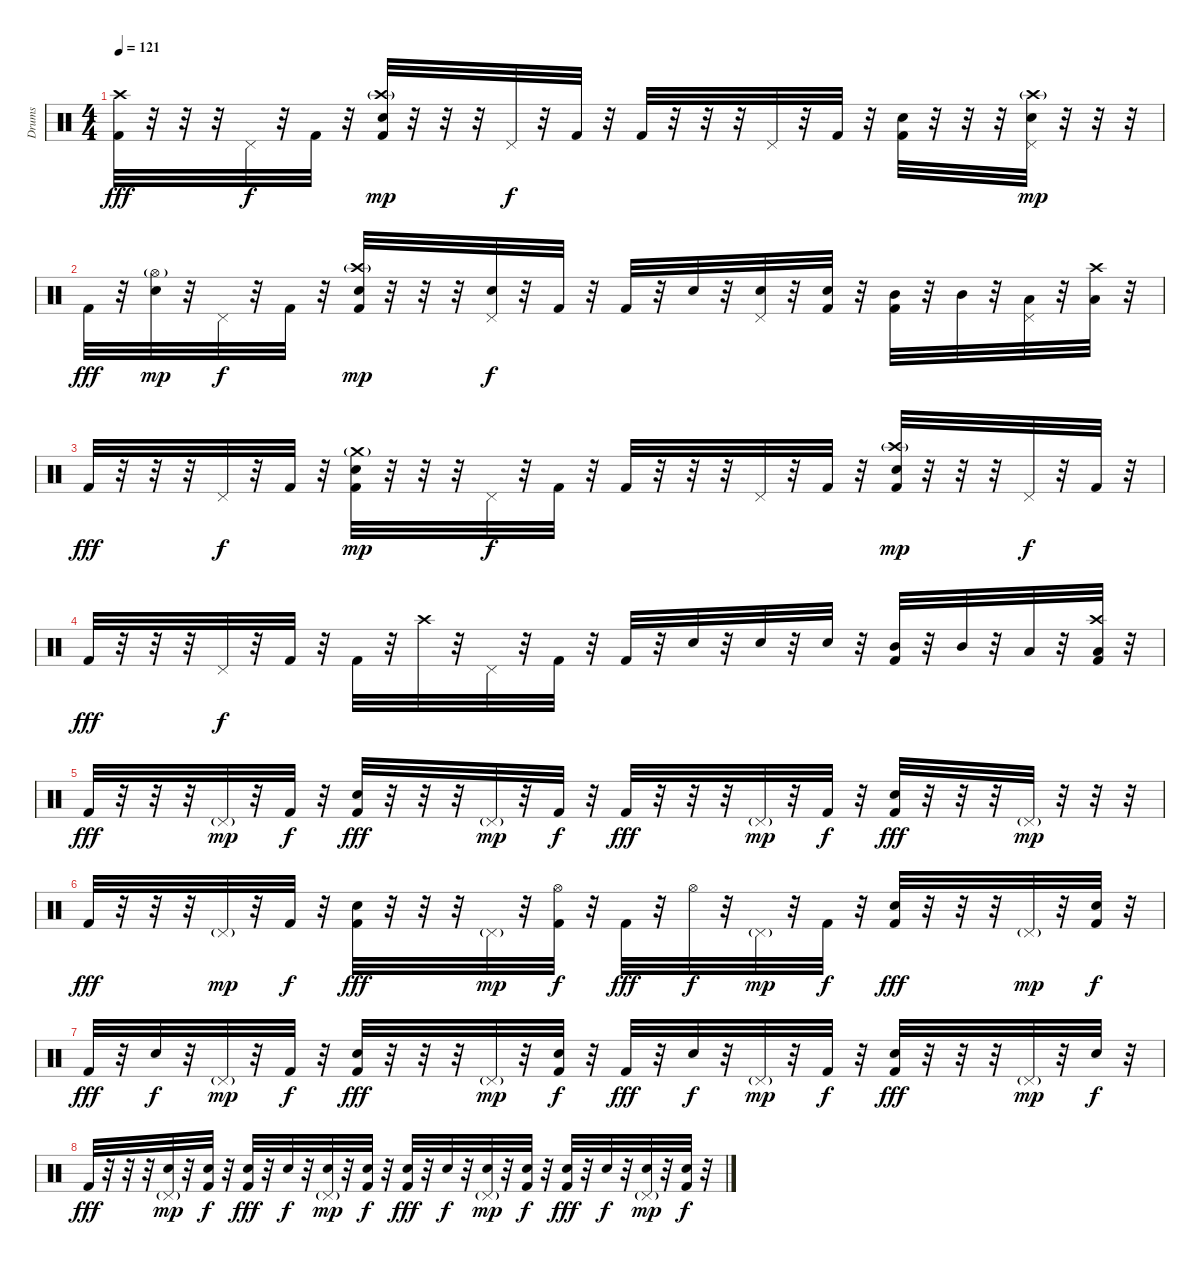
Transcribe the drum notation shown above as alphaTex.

\track ("Drums" "Drums") {instrument percussion}
\staff {score}
\articulation defaults
\ts (4 4)
\tempo 121
\clef neutral
\ks c
("Kick (hit) 2" "Crash high (hit)").32{dy fff} r.32 r.32 r.32 "Pedal Hi-Hat (hit)".32{dy f} r.32 "Kick (hit) 2".32 r.32 ("Kick (hit) 2" "Crash high (hit)"{g} "Electric Snare (hit)").32{dy mp} r.32 r.32 r.32 "Pedal Hi-Hat (hit)".32{dy f} r.32 "Kick (hit) 2".32 r.32 "Kick (hit) 2".32 r.32 r.32 r.32 "Pedal Hi-Hat (hit)".32 r.32 "Kick (hit) 2".32 r.32 ("Kick (hit) 2" "Electric Snare (hit)").32 r.32 r.32 r.32 ("Pedal Hi-Hat (hit)" "Electric Snare (hit)" "Crash high (hit)"{g}).32{dy mp} r.32 r.32 r.32 |
"Kick (hit) 2".32{dy fff} r.32 ("Hi-Hat (open)"{g} "Electric Snare (hit)").32{dy mp} r.32 "Pedal Hi-Hat (hit)".32{dy f} r.32 "Kick (hit) 2".32 r.32 ("Kick (hit) 2" "Electric Snare (hit)" "Crash high (hit)"{g}).32{dy mp} r.32 r.32 r.32 ("Pedal Hi-Hat (hit)" "Electric Snare (hit)").32{dy f} r.32 "Kick (hit) 2".32 r.32 "Kick (hit) 2".32 r.32 "Electric Snare (hit)".32 r.32 ("Pedal Hi-Hat (hit)" "Electric Snare (hit)").32 r.32 ("Kick (hit) 2" "Electric Snare (hit)").32 r.32 ("Kick (hit) 2" "Mid Tom (hit)").32 r.32 "Mid Tom (hit)".32 r.32 ("Pedal Hi-Hat (hit)" "Low Tom (hit)").32 r.32 ("Crash high (hit)" "Low Tom (hit)").32 r.32 |
"Kick (hit) 2".32{dy fff} r.32 r.32 r.32 "Pedal Hi-Hat (hit)".32{dy f} r.32 "Kick (hit) 2".32 r.32 ("Kick (hit) 2" "Crash medium (hit)"{g} "Electric Snare (hit)").32{dy mp} r.32 r.32 r.32 "Pedal Hi-Hat (hit)".32{dy f} r.32 "Kick (hit) 2".32 r.32 "Kick (hit) 2".32 r.32 r.32 r.32 "Pedal Hi-Hat (hit)".32 r.32 "Kick (hit) 2".32 r.32 ("Kick (hit) 2" "Electric Snare (hit)" "Crash high (hit)"{g}).32{dy mp} r.32 r.32 r.32 "Pedal Hi-Hat (hit)".32{dy f} r.32 "Kick (hit) 2".32 r.32 |
"Kick (hit) 2".32{dy fff} r.32 r.32 r.32 "Pedal Hi-Hat (hit)".32{dy f} r.32 "Kick (hit) 2".32 r.32 "Kick (hit) 2".32 r.32 "Crash high (hit)".32 r.32 "Pedal Hi-Hat (hit)".32 r.32 "Kick (hit) 2".32 r.32 "Kick (hit) 2".32 r.32 "Electric Snare (hit)".32 r.32 "Electric Snare (hit)".32 r.32 "Electric Snare (hit)".32 r.32 ("Kick (hit) 2" "Mid Tom (hit)").32 r.32 "Mid Tom (hit)".32 r.32 "Low Tom (hit)".32 r.32 ("Kick (hit) 2" "Crash high (hit)" "Low Tom (hit)").32 r.32 |
"Kick (hit) 2".32{dy fff} r.32 r.32 r.32 "Pedal Hi-Hat (hit)"{g}.32{dy mp} r.32 "Kick (hit) 2".32{dy f} r.32 ("Kick (hit) 2" "Electric Snare (hit)").32{dy fff} r.32 r.32 r.32 "Pedal Hi-Hat (hit)"{g}.32{dy mp} r.32 "Kick (hit) 2".32{dy f} r.32 "Kick (hit) 2".32{dy fff} r.32 r.32 r.32 "Pedal Hi-Hat (hit)"{g}.32{dy mp} r.32 "Kick (hit) 2".32{dy f} r.32 ("Kick (hit) 2" "Electric Snare (hit)").32{dy fff} r.32 r.32 r.32 "Pedal Hi-Hat (hit)"{g}.32{dy mp} r.32 r.32 r.32 |
"Kick (hit) 2".32{dy fff} r.32 r.32 r.32 "Pedal Hi-Hat (hit)"{g}.32{dy mp} r.32 "Kick (hit) 2".32{dy f} r.32 ("Kick (hit) 2" "Electric Snare (hit)").32{dy fff} r.32 r.32 r.32 "Pedal Hi-Hat (hit)"{g}.32{dy mp} r.32 ("Kick (hit) 2" "Hi-Hat (open)").32{dy f} r.32 "Kick (hit) 2".32{dy fff} r.32 "Hi-Hat (open)".32{dy f} r.32 "Pedal Hi-Hat (hit)"{g}.32{dy mp} r.32 "Kick (hit) 2".32{dy f} r.32 ("Kick (hit) 2" "Electric Snare (hit)").32{dy fff} r.32 r.32 r.32 "Pedal Hi-Hat (hit)"{g}.32{dy mp} r.32 ("Kick (hit) 2" "Electric Snare (hit)").32{dy f} r.32 |
"Kick (hit) 2".32{dy fff} r.32 "Electric Snare (hit)".32{dy f} r.32 "Pedal Hi-Hat (hit)"{g}.32{dy mp} r.32 "Kick (hit) 2".32{dy f} r.32 ("Kick (hit) 2" "Electric Snare (hit)").32{dy fff} r.32 r.32 r.32 "Pedal Hi-Hat (hit)"{g}.32{dy mp} r.32 ("Kick (hit) 2" "Electric Snare (hit)").32{dy f} r.32 "Kick (hit) 2".32{dy fff} r.32 "Electric Snare (hit)".32{dy f} r.32 "Pedal Hi-Hat (hit)"{g}.32{dy mp} r.32 "Kick (hit) 2".32{dy f} r.32 ("Kick (hit) 2" "Electric Snare (hit)").32{dy fff} r.32 r.32 r.32 "Pedal Hi-Hat (hit)"{g}.32{dy mp} r.32 "Electric Snare (hit)".32{dy f} r.32 |
"Kick (hit) 2".32{dy fff} r.32 r.32 r.32 ("Pedal Hi-Hat (hit)"{g} "Electric Snare (hit)").32{dy mp} r.32 ("Kick (hit) 2" "Electric Snare (hit)").32{dy f} r.32 ("Kick (hit) 2" "Electric Snare (hit)").32{dy fff} r.32 "Electric Snare (hit)".32{dy f} r.32 ("Pedal Hi-Hat (hit)"{g} "Electric Snare (hit)").32{dy mp} r.32 ("Kick (hit) 2" "Electric Snare (hit)").32{dy f} r.32 ("Kick (hit) 2" "Electric Snare (hit)").32{dy fff} r.32 "Electric Snare (hit)".32{dy f} r.32 ("Pedal Hi-Hat (hit)"{g} "Electric Snare (hit)").32{dy mp} r.32 ("Kick (hit) 2" "Electric Snare (hit)").32{dy f} r.32 ("Kick (hit) 2" "Electric Snare (hit)").32{dy fff} r.32 "Electric Snare (hit)".32{dy f} r.32 ("Pedal Hi-Hat (hit)"{g} "Electric Snare (hit)").32{dy mp} r.32 ("Kick (hit) 2" "Electric Snare (hit)").32{dy f} r.32
